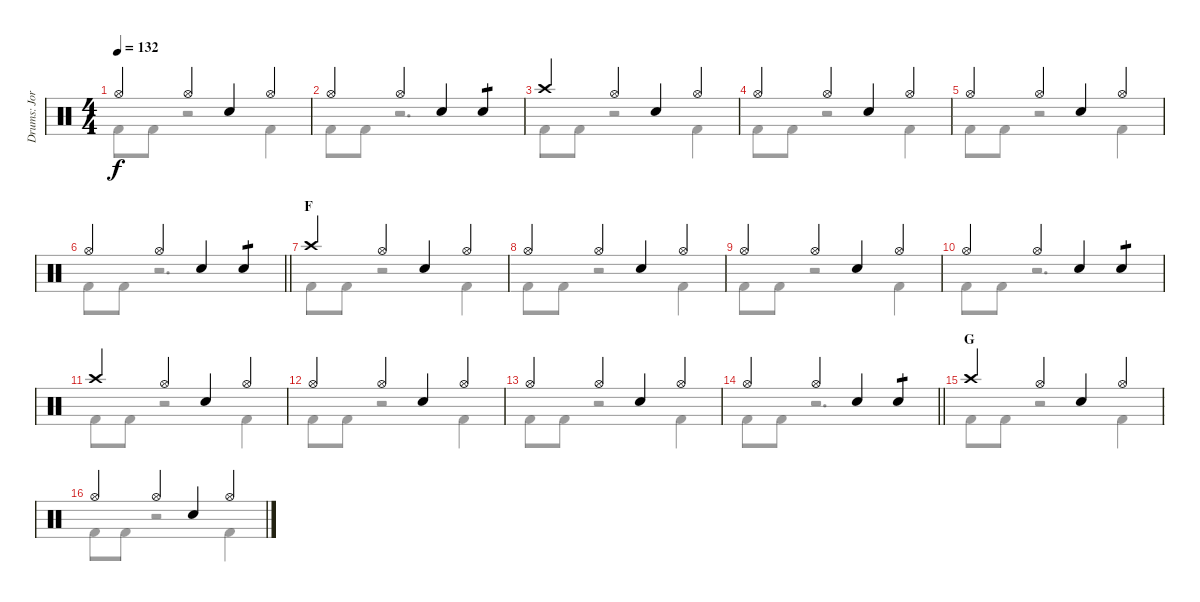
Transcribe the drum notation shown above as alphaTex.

\track ("Drums: Jorg" "Drums: Jor") {instrument percussion}
\staff {score}
\articulation defaults
\voice
\ts (4 4)
\tempo 132
\clef neutral
\ks c "Hi-Hat (open)".4{dy f} "Hi-Hat (open)".4 "Snare (hit) 2".4 "Hi-Hat (open)".4
|
"Hi-Hat (open)".4 "Hi-Hat (open)".4 "Snare (hit) 2".4 "Snare (hit) 2".4{tp 1} |
"Crash high (hit)".4 "Hi-Hat (open)".4 "Snare (hit) 2".4 "Hi-Hat (open)".4 |
"Hi-Hat (open)".4 "Hi-Hat (open)".4 "Snare (hit) 2".4 "Hi-Hat (open)".4 |
"Hi-Hat (open)".4 "Hi-Hat (open)".4 "Snare (hit) 2".4 "Hi-Hat (open)".4 |
\barLineRight lightlight "Hi-Hat (open)".4 "Hi-Hat (open)".4 "Snare (hit) 2".4 "Snare (hit) 2".4{tp 1}
|
\section ("" "F")
"Crash high (hit)".4 "Hi-Hat (open)".4 "Snare (hit) 2".4 "Hi-Hat (open)".4 |
"Hi-Hat (open)".4 "Hi-Hat (open)".4 "Snare (hit) 2".4 "Hi-Hat (open)".4 |
"Hi-Hat (open)".4 "Hi-Hat (open)".4 "Snare (hit) 2".4 "Hi-Hat (open)".4 |
"Hi-Hat (open)".4 "Hi-Hat (open)".4 "Snare (hit) 2".4 "Snare (hit) 2".4{tp 1} |
"Crash high (hit)".4 "Hi-Hat (open)".4 "Snare (hit) 2".4 "Hi-Hat (open)".4 |
"Hi-Hat (open)".4 "Hi-Hat (open)".4 "Snare (hit) 2".4 "Hi-Hat (open)".4 |
"Hi-Hat (open)".4 "Hi-Hat (open)".4 "Snare (hit) 2".4 "Hi-Hat (open)".4 |
\barLineRight lightlight "Hi-Hat (open)".4 "Hi-Hat (open)".4 "Snare (hit) 2".4 "Snare (hit) 2".4{tp 1}
|
\section ("" "G")
"Crash high (hit)".4 "Hi-Hat (open)".4 "Snare (hit) 2".4 "Hi-Hat (open)".4 |
"Hi-Hat (open)".4 "Hi-Hat (open)".4 "Snare (hit) 2".4 "Hi-Hat (open)".4
\voice
\clef neutral
\ottava regular
\simile none
\ks c "Kick (hit) 2".8{dy f} "Kick (hit) 2".8
r.2 "Kick (hit) 2".4 |
"Kick (hit) 2".8 "Kick (hit) 2".8 r.2{d} |
"Kick (hit) 2".8 "Kick (hit) 2".8 r.2 "Kick (hit) 2".4 |
"Kick (hit) 2".8 "Kick (hit) 2".8 r.2 "Kick (hit) 2".4 |
"Kick (hit) 2".8 "Kick (hit) 2".8 r.2 "Kick (hit) 2".4 |
\barLineRight lightlight "Kick (hit) 2".8 "Kick (hit) 2".8
r.2{d} |
"Kick (hit) 2".8 "Kick (hit) 2".8 r.2 "Kick (hit) 2".4 |
"Kick (hit) 2".8 "Kick (hit) 2".8 r.2 "Kick (hit) 2".4 |
"Kick (hit) 2".8 "Kick (hit) 2".8 r.2 "Kick (hit) 2".4 |
"Kick (hit) 2".8 "Kick (hit) 2".8 r.2{d} |
"Kick (hit) 2".8 "Kick (hit) 2".8 r.2 "Kick (hit) 2".4 |
"Kick (hit) 2".8 "Kick (hit) 2".8 r.2 "Kick (hit) 2".4 |
"Kick (hit) 2".8 "Kick (hit) 2".8 r.2 "Kick (hit) 2".4 |
\barLineRight lightlight "Kick (hit) 2".8 "Kick (hit) 2".8
r.2{d} |
"Kick (hit) 2".8 "Kick (hit) 2".8 r.2 "Kick (hit) 2".4 |
"Kick (hit) 2".8 "Kick (hit) 2".8 r.2 "Kick (hit) 2".4
